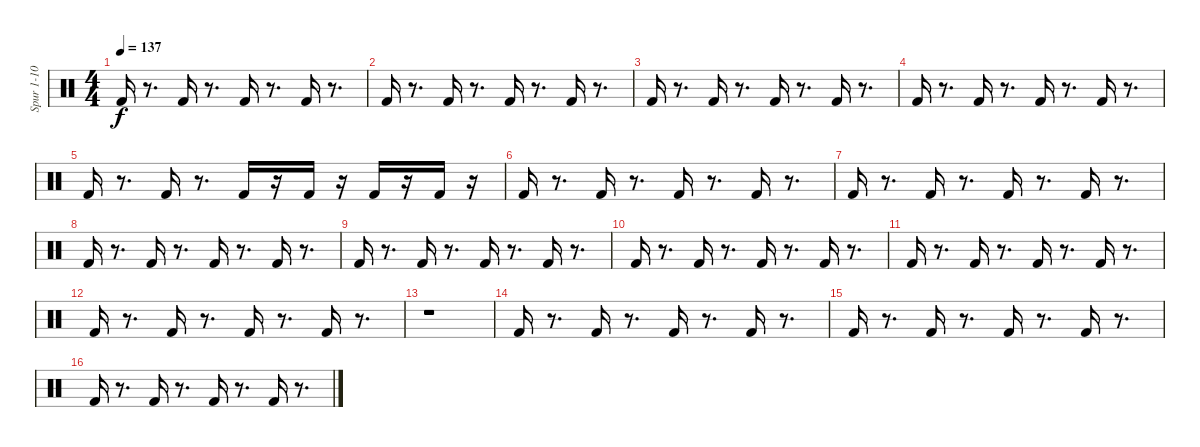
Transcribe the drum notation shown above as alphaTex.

\track ("Spur 1-10" "Spur 1-10") {instrument percussion}
\staff {score}
\articulation defaults
\ts (4 4)
\tempo 137
\clef neutral
\ks c "Kick (hit) 2".16{dy f}
r.8{d} "Kick (hit) 2".16 r.8{d} "Kick (hit) 2".16 r.8{d} "Kick (hit) 2".16 r.8{d} |
"Kick (hit) 2".16 r.8{d} "Kick (hit) 2".16 r.8{d} "Kick (hit) 2".16 r.8{d} "Kick (hit) 2".16 r.8{d} |
"Kick (hit) 2".16 r.8{d} "Kick (hit) 2".16 r.8{d} "Kick (hit) 2".16 r.8{d} "Kick (hit) 2".16 r.8{d} |
"Kick (hit) 2".16 r.8{d} "Kick (hit) 2".16 r.8{d} "Kick (hit) 2".16 r.8{d} "Kick (hit) 2".16 r.8{d} |
"Kick (hit) 2".16 r.8{d} "Kick (hit) 2".16 r.8{d} "Kick (hit) 2".16 r.16 "Kick (hit) 2".16 r.16 "Kick (hit) 2".16 r.16 "Kick (hit) 2".16 r.16 |
"Kick (hit) 2".16 r.8{d} "Kick (hit) 2".16 r.8{d} "Kick (hit) 2".16 r.8{d} "Kick (hit) 2".16 r.8{d} |
"Kick (hit) 2".16 r.8{d} "Kick (hit) 2".16 r.8{d} "Kick (hit) 2".16 r.8{d} "Kick (hit) 2".16 r.8{d} |
"Kick (hit) 2".16 r.8{d} "Kick (hit) 2".16 r.8{d} "Kick (hit) 2".16 r.8{d} "Kick (hit) 2".16 r.8{d} |
"Kick (hit) 2".16 r.8{d} "Kick (hit) 2".16 r.8{d} "Kick (hit) 2".16 r.8{d} "Kick (hit) 2".16 r.8{d} |
"Kick (hit) 2".16 r.8{d} "Kick (hit) 2".16 r.8{d} "Kick (hit) 2".16 r.8{d} "Kick (hit) 2".16 r.8{d} |
"Kick (hit) 2".16 r.8{d} "Kick (hit) 2".16 r.8{d} "Kick (hit) 2".16 r.8{d} "Kick (hit) 2".16 r.8{d} |
"Kick (hit) 2".16 r.8{d} "Kick (hit) 2".16 r.8{d} "Kick (hit) 2".16 r.8{d} "Kick (hit) 2".16 r.8{d} |
r.1 |
"Kick (hit) 2".16 r.8{d} "Kick (hit) 2".16 r.8{d} "Kick (hit) 2".16 r.8{d} "Kick (hit) 2".16 r.8{d} |
"Kick (hit) 2".16 r.8{d} "Kick (hit) 2".16 r.8{d} "Kick (hit) 2".16 r.8{d} "Kick (hit) 2".16 r.8{d} |
"Kick (hit) 2".16 r.8{d} "Kick (hit) 2".16 r.8{d} "Kick (hit) 2".16 r.8{d} "Kick (hit) 2".16 r.8{d}
